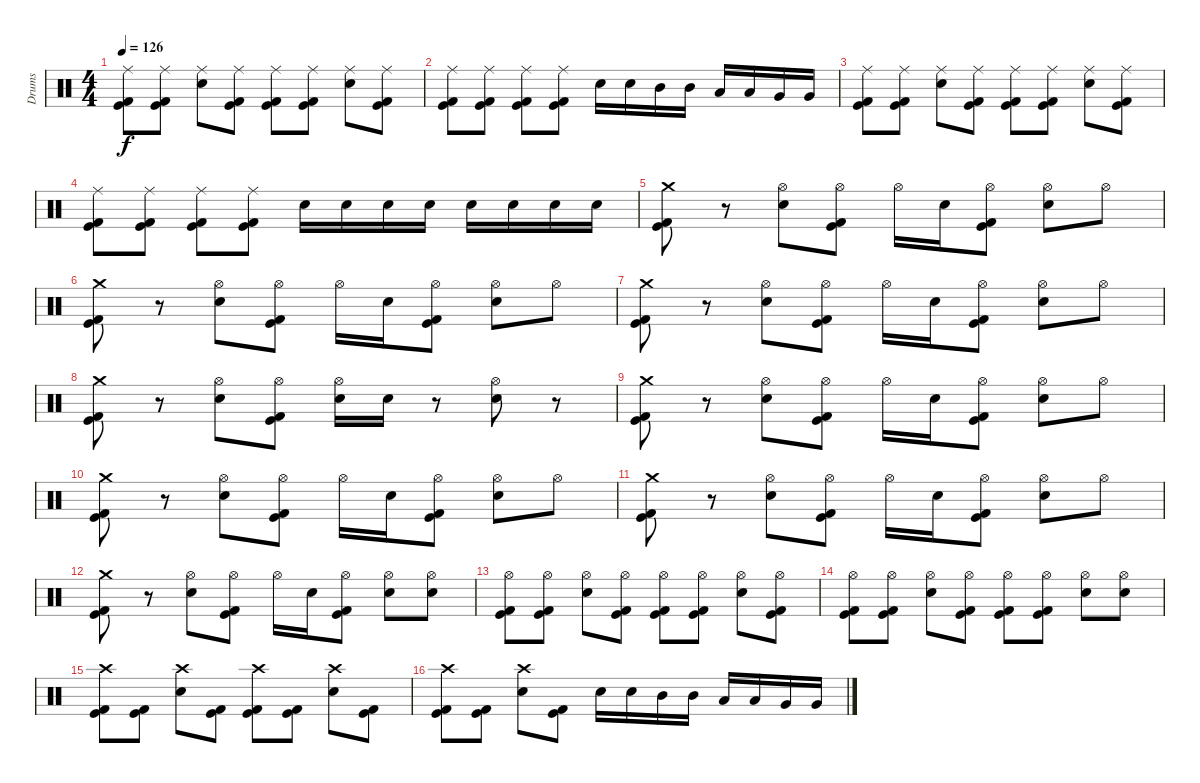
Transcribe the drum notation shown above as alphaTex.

\track ("Drums" "Drums") {instrument percussion}
\staff {score}
\articulation defaults
\ts (4 4)
\tempo 126
\clef neutral
\ks c
("Ride (middle)" "Kick (hit) 2" "Kick (hit)").8{dy f} ("Ride (middle)" "Kick (hit) 2" "Kick (hit)").8 ("Ride (middle)" "Snare (hit) 2").8 ("Ride (middle)" "Kick (hit) 2" "Kick (hit)").8 ("Ride (middle)" "Kick (hit) 2" "Kick (hit)").8 ("Ride (middle)" "Kick (hit) 2" "Kick (hit)").8 ("Ride (middle)" "Snare (hit) 2").8 ("Ride (middle)" "Kick (hit) 2" "Kick (hit)").8 |
("Ride (middle)" "Kick (hit) 2" "Kick (hit)").8 ("Ride (middle)" "Kick (hit) 2" "Kick (hit)").8 ("Ride (middle)" "Kick (hit) 2" "Kick (hit)").8 ("Ride (middle)" "Kick (hit) 2" "Kick (hit)").8 "Snare (hit) 2".16 "Snare (hit) 2".16 "Mid Tom (hit)".16 "Mid Tom (hit)".16 "Low Tom (hit)".16 "Low Tom (hit)".16 "Very Low Tom (hit)".16 "Very Low Tom (hit)".16 |
("Ride (middle)" "Kick (hit) 2" "Kick (hit)").8 ("Ride (middle)" "Kick (hit) 2" "Kick (hit)").8 ("Ride (middle)" "Snare (hit) 2").8 ("Ride (middle)" "Kick (hit) 2" "Kick (hit)").8 ("Ride (middle)" "Kick (hit) 2" "Kick (hit)").8 ("Ride (middle)" "Kick (hit) 2" "Kick (hit)").8 ("Ride (middle)" "Snare (hit) 2").8 ("Ride (middle)" "Kick (hit) 2" "Kick (hit)").8 |
("Ride (middle)" "Kick (hit) 2" "Kick (hit)").8 ("Ride (middle)" "Kick (hit) 2" "Kick (hit)").8 ("Ride (middle)" "Kick (hit) 2" "Kick (hit)").8 ("Ride (middle)" "Kick (hit) 2" "Kick (hit)").8 "Snare (hit) 2".16 "Snare (hit) 2".16 "Snare (hit) 2".16 "Snare (hit) 2".16 "Snare (hit) 2".16 "Snare (hit) 2".16 "Snare (hit) 2".16 "Snare (hit) 2".16 |
("Crash medium (hit)" "Kick (hit) 2" "Kick (hit)").8 r.8 ("Hi-Hat (open)" "Snare (hit) 2").8 ("Hi-Hat (open)" "Kick (hit) 2" "Kick (hit)").8 "Hi-Hat (open)".16 "Snare (hit) 2".16 ("Hi-Hat (open)" "Kick (hit) 2" "Kick (hit)").8 ("Hi-Hat (open)" "Snare (hit) 2").8 "Hi-Hat (open)".8 |
("Crash medium (hit)" "Kick (hit) 2" "Kick (hit)").8 r.8 ("Hi-Hat (open)" "Snare (hit) 2").8 ("Hi-Hat (open)" "Kick (hit) 2" "Kick (hit)").8 "Hi-Hat (open)".16 "Snare (hit) 2".16 ("Hi-Hat (open)" "Kick (hit) 2" "Kick (hit)").8 ("Hi-Hat (open)" "Snare (hit) 2").8 "Hi-Hat (open)".8 |
("Crash medium (hit)" "Kick (hit) 2" "Kick (hit)").8 r.8 ("Hi-Hat (open)" "Snare (hit) 2").8 ("Hi-Hat (open)" "Kick (hit) 2" "Kick (hit)").8 "Hi-Hat (open)".16 "Snare (hit) 2".16 ("Hi-Hat (open)" "Kick (hit) 2" "Kick (hit)").8 ("Hi-Hat (open)" "Snare (hit) 2").8 "Hi-Hat (open)".8 |
("Crash medium (hit)" "Kick (hit) 2" "Kick (hit)").8 r.8 ("Hi-Hat (open)" "Snare (hit) 2").8 ("Hi-Hat (open)" "Kick (hit) 2" "Kick (hit)").8 ("Hi-Hat (open)" "Snare (hit) 2").16 "Snare (hit) 2".16 r.8 ("Hi-Hat (open)" "Snare (hit) 2").8 r.8 |
("Crash medium (hit)" "Kick (hit) 2" "Kick (hit)").8 r.8 ("Hi-Hat (open)" "Snare (hit) 2").8 ("Hi-Hat (open)" "Kick (hit) 2" "Kick (hit)").8 "Hi-Hat (open)".16 "Snare (hit) 2".16 ("Hi-Hat (open)" "Kick (hit) 2" "Kick (hit)").8 ("Hi-Hat (open)" "Snare (hit) 2").8 "Hi-Hat (open)".8 |
("Crash medium (hit)" "Kick (hit) 2" "Kick (hit)").8 r.8 ("Hi-Hat (open)" "Snare (hit) 2").8 ("Hi-Hat (open)" "Kick (hit) 2" "Kick (hit)").8 "Hi-Hat (open)".16 "Snare (hit) 2".16 ("Hi-Hat (open)" "Kick (hit) 2" "Kick (hit)").8 ("Hi-Hat (open)" "Snare (hit) 2").8 "Hi-Hat (open)".8 |
("Crash medium (hit)" "Kick (hit) 2" "Kick (hit)").8 r.8 ("Hi-Hat (open)" "Snare (hit) 2").8 ("Hi-Hat (open)" "Kick (hit) 2" "Kick (hit)").8 "Hi-Hat (open)".16 "Snare (hit) 2".16 ("Hi-Hat (open)" "Kick (hit) 2" "Kick (hit)").8 ("Hi-Hat (open)" "Snare (hit) 2").8 "Hi-Hat (open)".8 |
("Crash medium (hit)" "Kick (hit) 2" "Kick (hit)").8 r.8 ("Hi-Hat (open)" "Snare (hit) 2").8 ("Hi-Hat (open)" "Kick (hit) 2" "Kick (hit)").8 "Hi-Hat (open)".16 "Snare (hit) 2".16 ("Hi-Hat (open)" "Kick (hit) 2" "Kick (hit)").8 ("Hi-Hat (open)" "Snare (hit) 2").8 ("Hi-Hat (open)" "Snare (hit) 2").8 |
("Hi-Hat (open)" "Kick (hit) 2" "Kick (hit)").8 ("Hi-Hat (open)" "Kick (hit) 2" "Kick (hit)").8 ("Hi-Hat (open)" "Snare (hit) 2").8 ("Hi-Hat (open)" "Kick (hit) 2" "Kick (hit)").8 ("Hi-Hat (open)" "Kick (hit) 2" "Kick (hit)").8 ("Hi-Hat (open)" "Kick (hit) 2" "Kick (hit)").8 ("Hi-Hat (open)" "Snare (hit) 2").8 ("Hi-Hat (open)" "Kick (hit) 2" "Kick (hit)").8 |
("Hi-Hat (open)" "Kick (hit) 2" "Kick (hit)").8 ("Hi-Hat (open)" "Kick (hit) 2" "Kick (hit)").8 ("Hi-Hat (open)" "Snare (hit) 2").8 ("Hi-Hat (open)" "Kick (hit) 2" "Kick (hit)").8 ("Hi-Hat (open)" "Kick (hit) 2" "Kick (hit)").8 ("Hi-Hat (open)" "Kick (hit) 2" "Kick (hit)").8 ("Hi-Hat (open)" "Snare (hit) 2").8 ("Hi-Hat (open)" "Snare (hit) 2").8 |
("Crash high (hit)" "Kick (hit) 2" "Kick (hit)").8 ("Kick (hit) 2" "Kick (hit)").8 ("Crash high (hit)" "Snare (hit) 2").8 ("Kick (hit) 2" "Kick (hit)").8 ("Crash high (hit)" "Kick (hit) 2" "Kick (hit)").8 ("Kick (hit) 2" "Kick (hit)").8 ("Crash high (hit)" "Snare (hit) 2").8 ("Kick (hit) 2" "Kick (hit)").8 |
("Crash high (hit)" "Kick (hit) 2" "Kick (hit)").8 ("Kick (hit) 2" "Kick (hit)").8 ("Crash high (hit)" "Snare (hit) 2").8 ("Kick (hit) 2" "Kick (hit)").8 "Snare (hit) 2".16 "Snare (hit) 2".16 "Mid Tom (hit)".16 "Mid Tom (hit)".16 "Low Tom (hit)".16 "Low Tom (hit)".16 "Very Low Tom (hit)".16 "Very Low Tom (hit)".16
